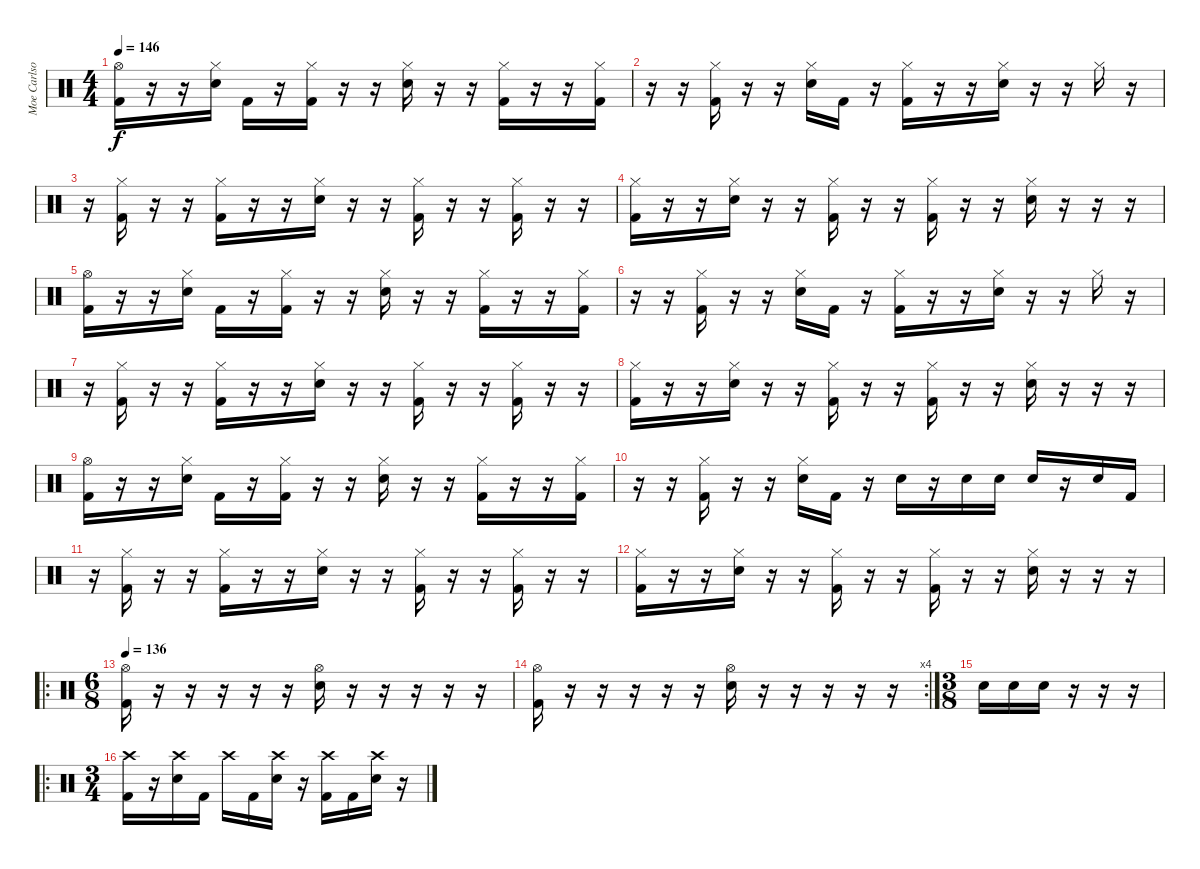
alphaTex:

\track ("Moe Carlson" "Moe Carlso") {instrument percussion}
\staff {score}
\articulation defaults
\ts (4 4)
\tempo 146
\clef neutral
\ks c
("Hi-Hat (open)" "Kick (hit) 2").16{dy f} r.16 r.16 ("Hi-Hat (closed)" "Electric Snare (hit)").16 "Kick (hit) 2".16 r.16 ("Hi-Hat (closed)" "Kick (hit) 2").16 r.16 r.16 ("Hi-Hat (closed)" "Electric Snare (hit)").16 r.16 r.16 ("Hi-Hat (closed)" "Kick (hit) 2").16 r.16 r.16 ("Hi-Hat (closed)" "Kick (hit) 2").16 |
r.16 r.16 ("Hi-Hat (closed)" "Kick (hit) 2").16 r.16 r.16 ("Hi-Hat (closed)" "Electric Snare (hit)").16 "Kick (hit) 2".16 r.16 ("Hi-Hat (closed)" "Kick (hit) 2").16 r.16 r.16 ("Hi-Hat (closed)" "Electric Snare (hit)").16 r.16 r.16 "Hi-Hat (closed)".16 r.16 |
r.16 ("Hi-Hat (closed)" "Kick (hit) 2").16 r.16 r.16 ("Hi-Hat (closed)" "Kick (hit) 2").16 r.16 r.16 ("Hi-Hat (closed)" "Electric Snare (hit)").16 r.16 r.16 ("Hi-Hat (closed)" "Kick (hit) 2").16 r.16 r.16 ("Hi-Hat (closed)" "Kick (hit) 2").16 r.16 r.16 |
("Hi-Hat (closed)" "Kick (hit) 2").16 r.16 r.16 ("Hi-Hat (closed)" "Electric Snare (hit)").16 r.16 r.16 ("Hi-Hat (closed)" "Kick (hit) 2").16 r.16 r.16 ("Hi-Hat (closed)" "Kick (hit) 2").16 r.16 r.16 ("Hi-Hat (closed)" "Electric Snare (hit)").16 r.16 r.16 r.16 |
("Hi-Hat (open)" "Kick (hit) 2").16 r.16 r.16 ("Hi-Hat (closed)" "Electric Snare (hit)").16 "Kick (hit) 2".16 r.16 ("Hi-Hat (closed)" "Kick (hit) 2").16 r.16 r.16 ("Hi-Hat (closed)" "Electric Snare (hit)").16 r.16 r.16 ("Hi-Hat (closed)" "Kick (hit) 2").16 r.16 r.16 ("Hi-Hat (closed)" "Kick (hit) 2").16 |
r.16 r.16 ("Hi-Hat (closed)" "Kick (hit) 2").16 r.16 r.16 ("Hi-Hat (closed)" "Electric Snare (hit)").16 "Kick (hit) 2".16 r.16 ("Hi-Hat (closed)" "Kick (hit) 2").16 r.16 r.16 ("Hi-Hat (closed)" "Electric Snare (hit)").16 r.16 r.16 "Hi-Hat (closed)".16 r.16 |
r.16 ("Hi-Hat (closed)" "Kick (hit) 2").16 r.16 r.16 ("Hi-Hat (closed)" "Kick (hit) 2").16 r.16 r.16 ("Hi-Hat (closed)" "Electric Snare (hit)").16 r.16 r.16 ("Hi-Hat (closed)" "Kick (hit) 2").16 r.16 r.16 ("Hi-Hat (closed)" "Kick (hit) 2").16 r.16 r.16 |
("Hi-Hat (closed)" "Kick (hit) 2").16 r.16 r.16 ("Hi-Hat (closed)" "Electric Snare (hit)").16 r.16 r.16 ("Hi-Hat (closed)" "Kick (hit) 2").16 r.16 r.16 ("Hi-Hat (closed)" "Kick (hit) 2").16 r.16 r.16 ("Hi-Hat (closed)" "Electric Snare (hit)").16 r.16 r.16 r.16 |
("Hi-Hat (open)" "Kick (hit) 2").16 r.16 r.16 ("Hi-Hat (closed)" "Electric Snare (hit)").16 "Kick (hit) 2".16 r.16 ("Hi-Hat (closed)" "Kick (hit) 2").16 r.16 r.16 ("Hi-Hat (closed)" "Electric Snare (hit)").16 r.16 r.16 ("Hi-Hat (closed)" "Kick (hit) 2").16 r.16 r.16 ("Hi-Hat (closed)" "Kick (hit) 2").16 |
r.16 r.16 ("Hi-Hat (closed)" "Kick (hit) 2").16 r.16 r.16 ("Hi-Hat (closed)" "Electric Snare (hit)").16 "Kick (hit) 2".16 r.16 "Electric Snare (hit)".16 r.16 "Electric Snare (hit)".16 "Electric Snare (hit)".16 "Electric Snare (hit)".16 r.16 "Electric Snare (hit)".16 "Kick (hit) 2".16 |
r.16 ("Hi-Hat (closed)" "Kick (hit) 2").16 r.16 r.16 ("Hi-Hat (closed)" "Kick (hit) 2").16 r.16 r.16 ("Hi-Hat (closed)" "Electric Snare (hit)").16 r.16 r.16 ("Hi-Hat (closed)" "Kick (hit) 2").16 r.16 r.16 ("Hi-Hat (closed)" "Kick (hit) 2").16 r.16 r.16 |
("Hi-Hat (closed)" "Kick (hit) 2").16 r.16 r.16 ("Hi-Hat (closed)" "Electric Snare (hit)").16 r.16 r.16 ("Hi-Hat (closed)" "Kick (hit) 2").16 r.16 r.16 ("Hi-Hat (closed)" "Kick (hit) 2").16 r.16 r.16 ("Hi-Hat (closed)" "Electric Snare (hit)").16 r.16 r.16 r.16 |
\ro
\ts (6 8)
\tempo 136
("Hi-Hat (open)" "Kick (hit) 2").16 r.16 r.16 r.16 r.16 r.16 ("Hi-Hat (open)" "Electric Snare (hit)").16 r.16 r.16 r.16 r.16 r.16 |
\rc 4
("Hi-Hat (open)" "Kick (hit) 2").16 r.16 r.16 r.16 r.16 r.16 ("Hi-Hat (open)" "Electric Snare (hit)").16 r.16 r.16 r.16 r.16 r.16 |
\ts (3 8)
"Electric Snare (hit)".16 "Electric Snare (hit)".16 "Electric Snare (hit)".16 r.16 r.16 r.16 |
\ro
\ts (3 4)
("Crash high (hit)" "Kick (hit) 2").16 r.16 ("Crash high (hit)" "Electric Snare (hit)").16 "Kick (hit) 2".16 "Crash high (hit)".16 "Kick (hit) 2".16 ("Crash high (hit)" "Electric Snare (hit)").16 r.16 ("Crash high (hit)" "Kick (hit) 2").16 "Kick (hit) 2".16 ("Crash high (hit)" "Electric Snare (hit)").16 r.16
